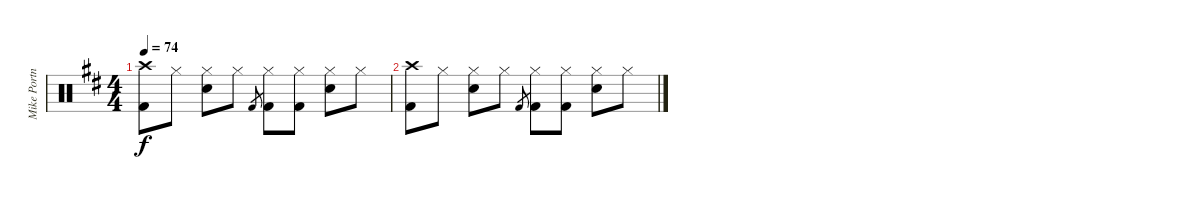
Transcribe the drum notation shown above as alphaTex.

\track ("Mike Portnoy" "Mike Portn") {instrument percussion}
\staff {score}
\articulation defaults
\ts (4 4)
\tempo 74
\clef neutral
\ks bminor
("Crash high (hit)" "Kick (hit) 2").8{dy f} "Hi-Hat (closed)".8 ("Hi-Hat (closed)" "Snare (hit) 2").8 "Hi-Hat (closed)".8 "Kick (hit) 2".8{gr} ("Hi-Hat (closed)" "Kick (hit) 2").8 ("Hi-Hat (closed)" "Kick (hit) 2").8 ("Hi-Hat (closed)" "Snare (hit) 2").8 "Hi-Hat (closed)".8 |
("Crash high (hit)" "Kick (hit) 2").8 "Hi-Hat (closed)".8 ("Hi-Hat (closed)" "Snare (hit) 2").8 "Hi-Hat (closed)".8 "Kick (hit) 2".8{gr} ("Hi-Hat (closed)" "Kick (hit) 2").8 ("Hi-Hat (closed)" "Kick (hit) 2").8 ("Hi-Hat (closed)" "Snare (hit) 2").8 "Hi-Hat (closed)".8
